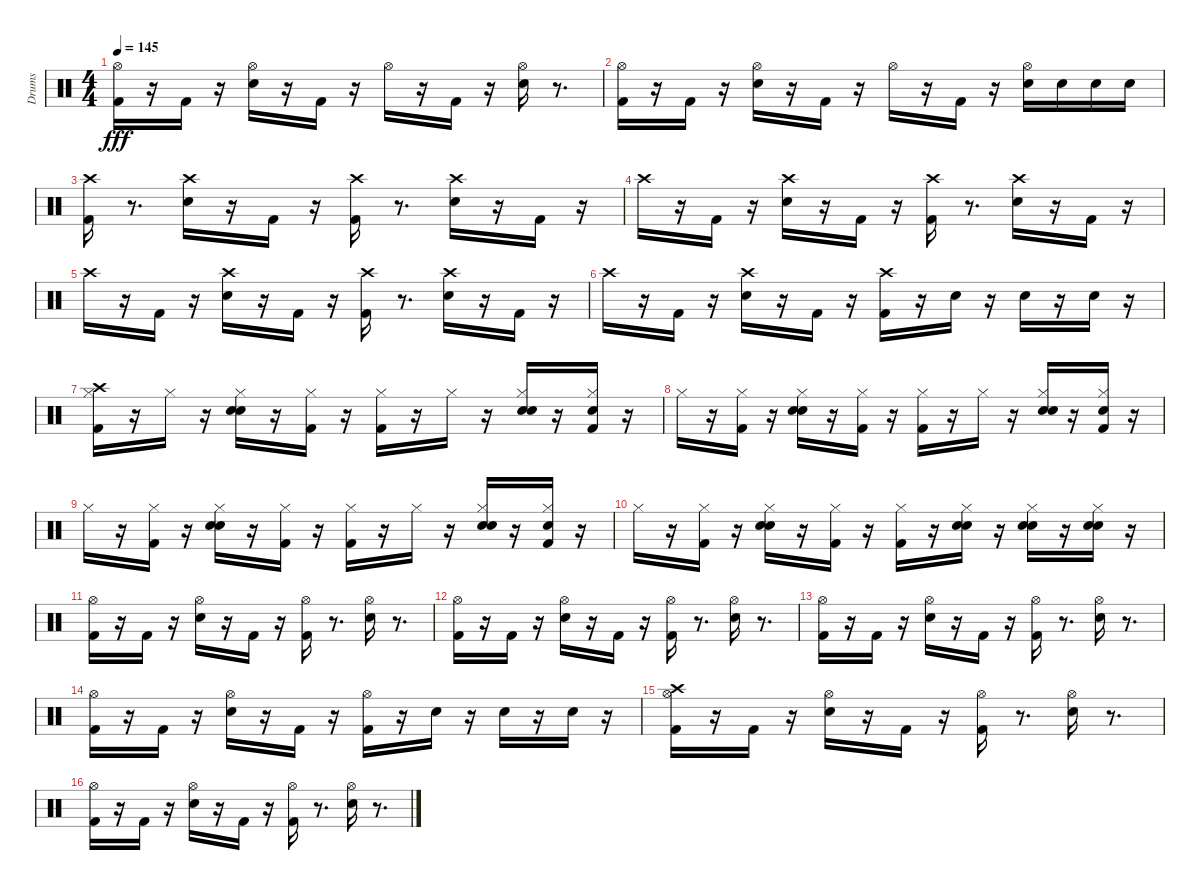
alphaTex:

\track ("Drums" "Drums") {instrument percussion}
\staff {score}
\articulation defaults
\ts (4 4)
\tempo 145
\clef neutral
\ks c
("Kick (hit) 2" "Hi-Hat (open)").16{dy fff} r.16 "Kick (hit) 2".16 r.16 ("Electric Snare (hit)" "Hi-Hat (open)").16 r.16 "Kick (hit) 2".16 r.16 "Hi-Hat (open)".16 r.16 "Kick (hit) 2".16 r.16 ("Electric Snare (hit)" "Hi-Hat (open)").16 r.8{d} |
("Kick (hit) 2" "Hi-Hat (open)").16 r.16 "Kick (hit) 2".16 r.16 ("Electric Snare (hit)" "Hi-Hat (open)").16 r.16 "Kick (hit) 2".16 r.16 "Hi-Hat (open)".16 r.16 "Kick (hit) 2".16 r.16 ("Electric Snare (hit)" "Hi-Hat (open)").16 "Electric Snare (hit)".16 "Electric Snare (hit)".16 "Electric Snare (hit)".16 |
("Kick (hit) 2" "Crash high (hit)").16 r.8{d} ("Crash high (hit)" "Electric Snare (hit)").16 r.16 "Kick (hit) 2".16 r.16 ("Crash high (hit)" "Kick (hit) 2").16 r.8{d} ("Crash high (hit)" "Electric Snare (hit)").16 r.16 "Kick (hit) 2".16 r.16 |
"Crash high (hit)".16 r.16 "Kick (hit) 2".16 r.16 ("Crash high (hit)" "Electric Snare (hit)").16 r.16 "Kick (hit) 2".16 r.16 ("Crash high (hit)" "Kick (hit) 2").16 r.8{d} ("Crash high (hit)" "Electric Snare (hit)").16 r.16 "Kick (hit) 2".16 r.16 |
"Crash high (hit)".16 r.16 "Kick (hit) 2".16 r.16 ("Crash high (hit)" "Electric Snare (hit)").16 r.16 "Kick (hit) 2".16 r.16 ("Crash high (hit)" "Kick (hit) 2").16 r.8{d} ("Crash high (hit)" "Electric Snare (hit)").16 r.16 "Kick (hit) 2".16 r.16 |
"Crash high (hit)".16 r.16 "Kick (hit) 2".16 r.16 ("Crash high (hit)" "Electric Snare (hit)").16 r.16 "Kick (hit) 2".16 r.16 ("Crash high (hit)" "Kick (hit) 2").16 r.16 "Electric Snare (hit)".16 r.16 "Electric Snare (hit)".16 r.16 "Electric Snare (hit)".16 r.16 |
("Crash high (hit)" "Hi-Hat (closed)" "Kick (hit) 2").16 r.16 "Hi-Hat (closed)".16 r.16 ("Hand Clap (hit)" "Hi-Hat (closed)" "Electric Snare (hit)").16 r.16 ("Hi-Hat (closed)" "Kick (hit) 2").16 r.16 ("Hi-Hat (closed)" "Kick (hit) 2").16 r.16 "Hi-Hat (closed)".16 r.16 ("Hand Clap (hit)" "Hi-Hat (closed)" "Electric Snare (hit)").16 r.16 ("Hand Clap (hit)" "Hi-Hat (closed)" "Kick (hit) 2").16 r.16 |
"Hi-Hat (closed)".16 r.16 ("Kick (hit) 2" "Hi-Hat (closed)").16 r.16 ("Electric Snare (hit)" "Hand Clap (hit)" "Hi-Hat (closed)").16 r.16 ("Kick (hit) 2" "Hi-Hat (closed)").16 r.16 ("Kick (hit) 2" "Hi-Hat (closed)").16 r.16 "Hi-Hat (closed)".16 r.16 ("Electric Snare (hit)" "Hi-Hat (closed)" "Hand Clap (hit)").16 r.16 ("Kick (hit) 2" "Hi-Hat (closed)" "Hand Clap (hit)").16 r.16 |
"Hi-Hat (closed)".16 r.16 ("Kick (hit) 2" "Hi-Hat (closed)").16 r.16 ("Electric Snare (hit)" "Hand Clap (hit)" "Hi-Hat (closed)").16 r.16 ("Kick (hit) 2" "Hi-Hat (closed)").16 r.16 ("Kick (hit) 2" "Hi-Hat (closed)").16 r.16 "Hi-Hat (closed)".16 r.16 ("Electric Snare (hit)" "Hand Clap (hit)" "Hi-Hat (closed)").16 r.16 ("Kick (hit) 2" "Hi-Hat (closed)" "Hand Clap (hit)").16 r.16 |
"Hi-Hat (closed)".16 r.16 ("Kick (hit) 2" "Hi-Hat (closed)").16 r.16 ("Electric Snare (hit)" "Hand Clap (hit)" "Hi-Hat (closed)").16 r.16 ("Kick (hit) 2" "Hi-Hat (closed)").16 r.16 ("Kick (hit) 2" "Hi-Hat (closed)").16 r.16 ("Electric Snare (hit)" "Hand Clap (hit)" "Hi-Hat (closed)").16 r.16 ("Electric Snare (hit)" "Hand Clap (hit)" "Hi-Hat (closed)").16 r.16 ("Electric Snare (hit)" "Hand Clap (hit)" "Hi-Hat (closed)").16 r.16 |
("Hi-Hat (open)" "Kick (hit) 2").16 r.16 "Kick (hit) 2".16 r.16 ("Hi-Hat (open)" "Electric Snare (hit)").16 r.16 "Kick (hit) 2".16 r.16 ("Hi-Hat (open)" "Kick (hit) 2").16 r.8{d} ("Hi-Hat (open)" "Electric Snare (hit)").16 r.8{d} |
("Kick (hit) 2" "Hi-Hat (open)").16 r.16 "Kick (hit) 2".16 r.16 ("Electric Snare (hit)" "Hi-Hat (open)").16 r.16 "Kick (hit) 2".16 r.16 ("Kick (hit) 2" "Hi-Hat (open)").16 r.8{d} ("Electric Snare (hit)" "Hi-Hat (open)").16 r.8{d} |
("Kick (hit) 2" "Hi-Hat (open)").16 r.16 "Kick (hit) 2".16 r.16 ("Electric Snare (hit)" "Hi-Hat (open)").16 r.16 "Kick (hit) 2".16 r.16 ("Kick (hit) 2" "Hi-Hat (open)").16 r.8{d} ("Electric Snare (hit)" "Hi-Hat (open)").16 r.8{d} |
("Kick (hit) 2" "Hi-Hat (open)").16 r.16 "Kick (hit) 2".16 r.16 ("Electric Snare (hit)" "Hi-Hat (open)").16 r.16 "Kick (hit) 2".16 r.16 ("Kick (hit) 2" "Hi-Hat (open)").16 r.16 "Electric Snare (hit)".16 r.16 "Electric Snare (hit)".16 r.16 "Electric Snare (hit)".16 r.16 |
("Crash high (hit)" "Hi-Hat (open)" "Kick (hit) 2").16 r.16 "Kick (hit) 2".16 r.16 ("Hi-Hat (open)" "Electric Snare (hit)").16 r.16 "Kick (hit) 2".16 r.16 ("Hi-Hat (open)" "Kick (hit) 2").16 r.8{d} ("Hi-Hat (open)" "Electric Snare (hit)").16 r.8{d} |
("Kick (hit) 2" "Hi-Hat (open)").16 r.16 "Kick (hit) 2".16 r.16 ("Electric Snare (hit)" "Hi-Hat (open)").16 r.16 "Kick (hit) 2".16 r.16 ("Kick (hit) 2" "Hi-Hat (open)").16 r.8{d} ("Electric Snare (hit)" "Hi-Hat (open)").16 r.8{d}
